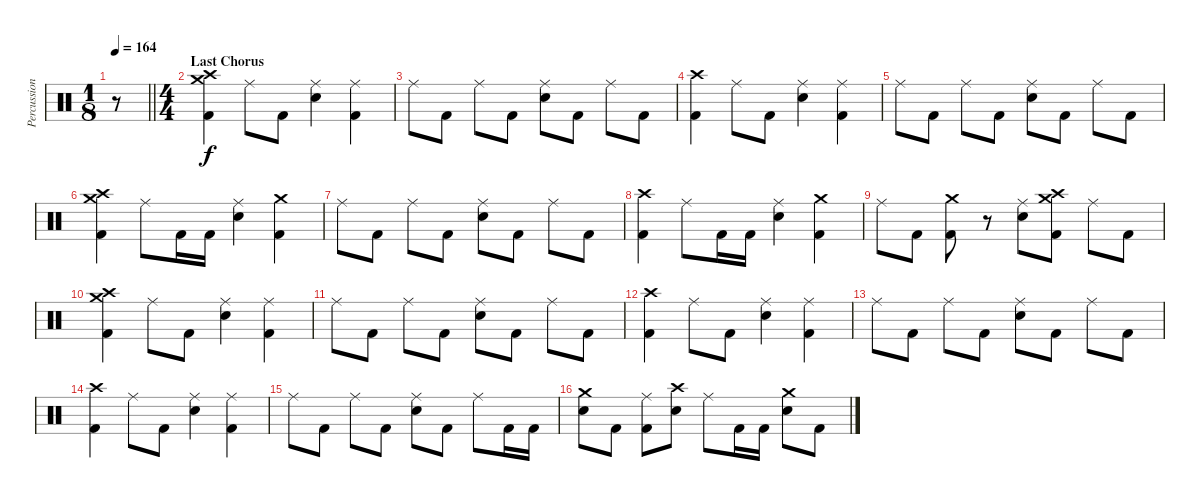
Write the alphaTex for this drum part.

\track ("Percussions" "Percussion") {instrument percussion}
\staff {score}
\articulation defaults
\ts (1 8)
\tempo 164
\clef neutral
\barLineRight lightlight
\ks c
r.8{dy f} |
\ts (4 4)
\section ("" "Last Chorus")
("Crash medium (hit)" "Crash high (hit)" "Kick (hit) 2").4 "Ride (middle)".8 "Kick (hit) 2".8 ("Ride (middle)" "Snare (hit) 2").4 ("Ride (middle)" "Kick (hit) 2").4 |
"Ride (middle)".8 "Kick (hit) 2".8 "Ride (middle)".8 "Kick (hit) 2".8 ("Ride (middle)" "Snare (hit) 2").8 "Kick (hit) 2".8 "Ride (middle)".8 "Kick (hit) 2".8 |
("Crash high (hit)" "Kick (hit) 2").4 "Ride (middle)".8 "Kick (hit) 2".8 ("Ride (middle)" "Snare (hit) 2").4 ("Ride (middle)" "Kick (hit) 2").4 |
"Ride (middle)".8 "Kick (hit) 2".8 "Ride (middle)".8 "Kick (hit) 2".8 ("Ride (middle)" "Snare (hit) 2").8 "Kick (hit) 2".8 "Ride (middle)".8 "Kick (hit) 2".8 |
("Crash medium (hit)" "Crash high (hit)" "Kick (hit) 2").4 "Ride (middle)".8 "Kick (hit) 2".16 "Kick (hit) 2".16 ("Ride (middle)" "Snare (hit) 2").4 ("Crash medium (hit)" "Kick (hit) 2").4 |
"Ride (middle)".8 "Kick (hit) 2".8 "Ride (middle)".8 "Kick (hit) 2".8 ("Ride (middle)" "Snare (hit) 2").8 "Kick (hit) 2".8 "Ride (middle)".8 "Kick (hit) 2".8 |
("Crash high (hit)" "Kick (hit) 2").4 "Ride (middle)".8 "Kick (hit) 2".16 "Kick (hit) 2".16 ("Ride (middle)" "Snare (hit) 2").4 ("Crash medium (hit)" "Kick (hit) 2").4 |
"Ride (middle)".8 "Kick (hit) 2".8 ("Crash medium (hit)" "Kick (hit) 2").8 r.8 ("Ride (middle)" "Snare (hit) 2").8 ("Crash medium (hit)" "Crash high (hit)" "Kick (hit) 2").8 "Ride (middle)".8 "Kick (hit) 2".8 |
("Crash medium (hit)" "Crash high (hit)" "Kick (hit) 2").4 "Ride (middle)".8 "Kick (hit) 2".8 ("Ride (middle)" "Snare (hit) 2").4 ("Ride (middle)" "Kick (hit) 2").4 |
"Ride (middle)".8 "Kick (hit) 2".8 "Ride (middle)".8 "Kick (hit) 2".8 ("Ride (middle)" "Snare (hit) 2").8 "Kick (hit) 2".8 "Ride (middle)".8 "Kick (hit) 2".8 |
("Crash high (hit)" "Kick (hit) 2").4 "Ride (middle)".8 "Kick (hit) 2".8 ("Ride (middle)" "Snare (hit) 2").4 ("Ride (middle)" "Kick (hit) 2").4 |
"Ride (middle)".8 "Kick (hit) 2".8 "Ride (middle)".8 "Kick (hit) 2".8 ("Ride (middle)" "Snare (hit) 2").8 "Kick (hit) 2".8 "Ride (middle)".8 "Kick (hit) 2".8 |
("Crash high (hit)" "Kick (hit) 2").4 "Ride (middle)".8 "Kick (hit) 2".8 ("Ride (middle)" "Snare (hit) 2").4 ("Ride (middle)" "Kick (hit) 2").4 |
"Ride (middle)".8 "Kick (hit) 2".8 "Ride (middle)".8 "Kick (hit) 2".8 ("Ride (middle)" "Snare (hit) 2").8 "Kick (hit) 2".8 "Ride (middle)".8 "Kick (hit) 2".16 "Kick (hit) 2".16 |
("Crash medium (hit)" "Snare (hit) 2").8 "Kick (hit) 2".8 ("Ride (middle)" "Kick (hit) 2").8 ("Crash high (hit)" "Snare (hit) 2").8 "Ride (middle)".8 "Kick (hit) 2".16 "Kick (hit) 2".16 ("Crash medium (hit)" "Snare (hit) 2").8 "Kick (hit) 2".8
